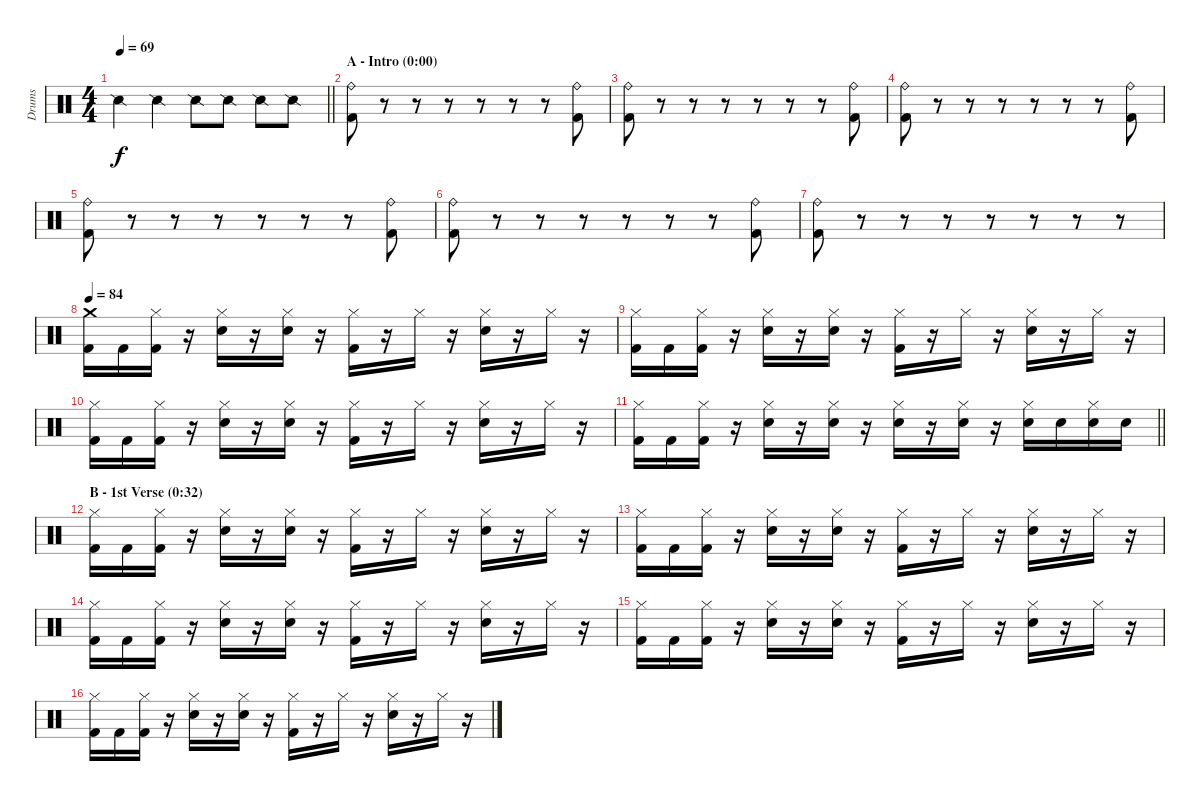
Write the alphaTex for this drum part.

\track ("Drums" "Drums") {instrument percussion}
\staff {score}
\articulation defaults
\ts (4 4)
\tempo 69
\clef neutral
\barLineRight lightlight
\ks c "Snare (side stick) 2".4{dy f} "Snare (side stick) 2".4 "Snare (side stick) 2".8 "Snare (side stick) 2".8 "Snare (side stick) 2".8 "Snare (side stick) 2".8
|
\section ("" "A - Intro (0:00)")
("Ride (bell)" "Kick (hit) 2").8 r.8 r.8 r.8 r.8 r.8 r.8 ("Ride (bell)" "Kick (hit) 2").8 |
("Ride (bell)" "Kick (hit) 2").8 r.8 r.8 r.8 r.8 r.8 r.8 ("Ride (bell)" "Kick (hit) 2").8 |
("Ride (bell)" "Kick (hit) 2").8 r.8 r.8 r.8 r.8 r.8 r.8 ("Ride (bell)" "Kick (hit) 2").8 |
("Ride (bell)" "Kick (hit) 2").8 r.8 r.8 r.8 r.8 r.8 r.8 ("Ride (bell)" "Kick (hit) 2").8 |
("Ride (bell)" "Kick (hit) 2").8 r.8 r.8 r.8 r.8 r.8 r.8 ("Ride (bell)" "Kick (hit) 2").8 |
("Ride (bell)" "Kick (hit) 2").8 r.8 r.8 r.8 r.8 r.8 r.8 r.8 |
\tempo 84
("Crash medium (hit)" "Kick (hit) 2").16 "Kick (hit) 2".16 ("Hi-Hat (closed)" "Kick (hit) 2").16 r.16 ("Hi-Hat (closed)" "Snare (hit) 2").16 r.16 ("Hi-Hat (closed)" "Snare (hit) 2").16 r.16 ("Hi-Hat (closed)" "Kick (hit) 2").16 r.16 "Hi-Hat (closed)".16 r.16 ("Hi-Hat (closed)" "Snare (hit) 2").16 r.16 "Hi-Hat (closed)".16 r.16 |
("Hi-Hat (closed)" "Kick (hit) 2").16 "Kick (hit) 2".16 ("Hi-Hat (closed)" "Kick (hit) 2").16 r.16 ("Hi-Hat (closed)" "Snare (hit) 2").16 r.16 ("Hi-Hat (closed)" "Snare (hit) 2").16 r.16 ("Hi-Hat (closed)" "Kick (hit) 2").16 r.16 "Hi-Hat (closed)".16 r.16 ("Hi-Hat (closed)" "Snare (hit) 2").16 r.16 "Hi-Hat (closed)".16 r.16 |
("Hi-Hat (closed)" "Kick (hit) 2").16 "Kick (hit) 2".16 ("Hi-Hat (closed)" "Kick (hit) 2").16 r.16 ("Hi-Hat (closed)" "Snare (hit) 2").16 r.16 ("Hi-Hat (closed)" "Snare (hit) 2").16 r.16 ("Hi-Hat (closed)" "Kick (hit) 2").16 r.16 "Hi-Hat (closed)".16 r.16 ("Hi-Hat (closed)" "Snare (hit) 2").16 r.16 "Hi-Hat (closed)".16 r.16 |
\barLineRight lightlight
("Hi-Hat (closed)" "Kick (hit) 2").16 "Kick (hit) 2".16 ("Hi-Hat (closed)" "Kick (hit) 2").16 r.16 ("Hi-Hat (closed)" "Snare (hit) 2").16 r.16 ("Hi-Hat (closed)" "Snare (hit) 2").16 r.16 ("Hi-Hat (closed)" "Snare (hit) 2").16 r.16 ("Hi-Hat (closed)" "Snare (hit) 2").16 r.16 ("Hi-Hat (closed)" "Snare (hit) 2").16 "Snare (hit) 2".16 ("Hi-Hat (closed)" "Snare (hit) 2").16 "Snare (hit) 2".16 |
\section ("" "B - 1st Verse (0:32)")
("Hi-Hat (closed)" "Kick (hit) 2").16 "Kick (hit) 2".16 ("Hi-Hat (closed)" "Kick (hit) 2").16 r.16 ("Hi-Hat (closed)" "Snare (hit) 2").16 r.16 ("Hi-Hat (closed)" "Snare (hit) 2").16 r.16 ("Hi-Hat (closed)" "Kick (hit) 2").16 r.16 "Hi-Hat (closed)".16 r.16 ("Hi-Hat (closed)" "Snare (hit) 2").16 r.16 "Hi-Hat (closed)".16 r.16 |
("Hi-Hat (closed)" "Kick (hit) 2").16 "Kick (hit) 2".16 ("Hi-Hat (closed)" "Kick (hit) 2").16 r.16 ("Hi-Hat (closed)" "Snare (hit) 2").16 r.16 ("Hi-Hat (closed)" "Snare (hit) 2").16 r.16 ("Hi-Hat (closed)" "Kick (hit) 2").16 r.16 "Hi-Hat (closed)".16 r.16 ("Hi-Hat (closed)" "Snare (hit) 2").16 r.16 "Hi-Hat (closed)".16 r.16 |
("Hi-Hat (closed)" "Kick (hit) 2").16 "Kick (hit) 2".16 ("Hi-Hat (closed)" "Kick (hit) 2").16 r.16 ("Hi-Hat (closed)" "Snare (hit) 2").16 r.16 ("Hi-Hat (closed)" "Snare (hit) 2").16 r.16 ("Hi-Hat (closed)" "Kick (hit) 2").16 r.16 "Hi-Hat (closed)".16 r.16 ("Hi-Hat (closed)" "Snare (hit) 2").16 r.16 "Hi-Hat (closed)".16 r.16 |
("Hi-Hat (closed)" "Kick (hit) 2").16 "Kick (hit) 2".16 ("Hi-Hat (closed)" "Kick (hit) 2").16 r.16 ("Hi-Hat (closed)" "Snare (hit) 2").16 r.16 ("Hi-Hat (closed)" "Snare (hit) 2").16 r.16 ("Hi-Hat (closed)" "Kick (hit) 2").16 r.16 "Hi-Hat (closed)".16 r.16 ("Hi-Hat (closed)" "Snare (hit) 2").16 r.16 "Hi-Hat (closed)".16 r.16 |
("Hi-Hat (closed)" "Kick (hit) 2").16 "Kick (hit) 2".16 ("Hi-Hat (closed)" "Kick (hit) 2").16 r.16 ("Hi-Hat (closed)" "Snare (hit) 2").16 r.16 ("Hi-Hat (closed)" "Snare (hit) 2").16 r.16 ("Hi-Hat (closed)" "Kick (hit) 2").16 r.16 "Hi-Hat (closed)".16 r.16 ("Hi-Hat (closed)" "Snare (hit) 2").16 r.16 "Hi-Hat (closed)".16 r.16
